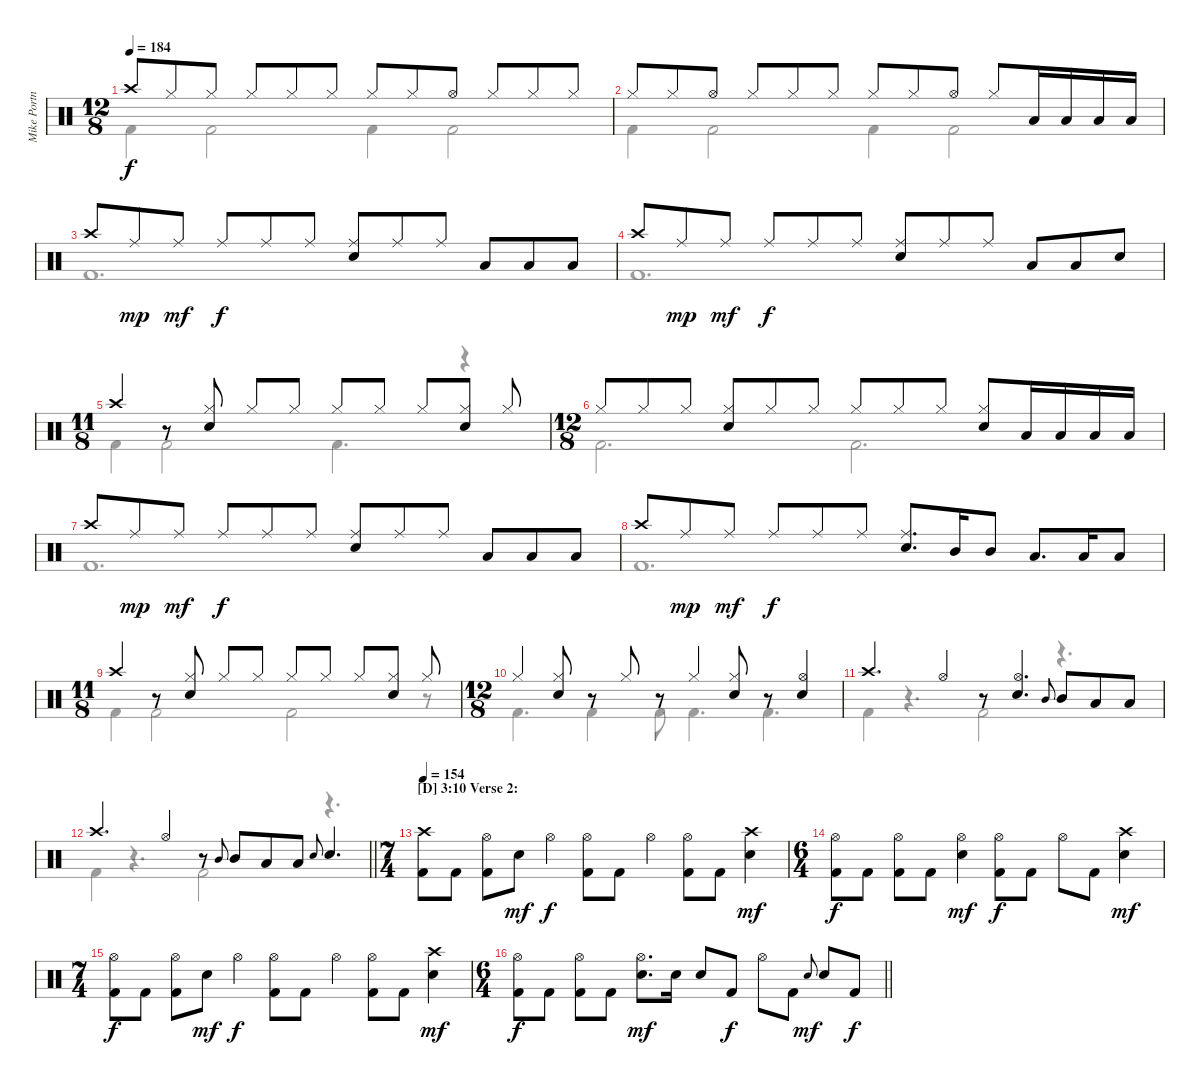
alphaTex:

\track ("Mike Portnoy - Drum" "Mike Portn") {instrument percussion}
\staff {score}
\articulation defaults
\voice
\ts (12 8)
\tempo 184
\clef neutral
\ks c "Crash high (hit)".8{dy f} "Hi-Hat (closed)".8 "Hi-Hat (closed)".8 "Hi-Hat (closed)".8 "Hi-Hat (closed)".8 "Hi-Hat (closed)".8 "Hi-Hat (closed)".8 "Hi-Hat (closed)".8 "Hi-Hat (open)".8 "Hi-Hat (closed)".8 "Hi-Hat (closed)".8 "Hi-Hat (closed)".8
|
"Hi-Hat (closed)".8 "Hi-Hat (closed)".8 "Hi-Hat (open)".8 "Hi-Hat (closed)".8 "Hi-Hat (closed)".8 "Hi-Hat (closed)".8 "Hi-Hat (closed)".8 "Hi-Hat (closed)".8 "Hi-Hat (open)".8 "Hi-Hat (closed)".8 "Low Tom (hit)".16 "Low Tom (hit)".16 "Low Tom (hit)".16 "Low Tom (hit)".16 |
"Crash high (hit)".8 "Ride (middle)".8{dy mp} "Ride (middle)".8{dy mf} "Ride (middle)".8{dy f} "Ride (middle)".8 "Ride (middle)".8 ("Ride (middle)" "Electric Snare (hit)").8 "Ride (middle)".8 "Ride (middle)".8 "Low Tom (hit)".8 "Low Tom (hit)".8 "Low Tom (hit)".8 |
"Crash high (hit)".8 "Ride (middle)".8{dy mp} "Ride (middle)".8{dy mf} "Ride (middle)".8{dy f} "Ride (middle)".8 "Ride (middle)".8 ("Ride (middle)" "Electric Snare (hit)").8 "Ride (middle)".8 "Ride (middle)".8 "Low Tom (hit)".8 "Low Tom (hit)".8 "Electric Snare (hit)".8 |
\ts (11 8)
"Crash high (hit)".4 r.8 ("Hi-Hat (closed)" "Electric Snare (hit)").8 "Hi-Hat (closed)".8 "Hi-Hat (closed)".8 "Hi-Hat (closed)".8 "Hi-Hat (closed)".8 "Hi-Hat (closed)".8 ("Hi-Hat (closed)" "Electric Snare (hit)").8 "Hi-Hat (closed)".8 |
\ts (12 8)
"Hi-Hat (closed)".8 "Hi-Hat (closed)".8 "Hi-Hat (closed)".8 ("Hi-Hat (closed)" "Electric Snare (hit)").8 "Hi-Hat (closed)".8 "Hi-Hat (closed)".8 "Hi-Hat (closed)".8 "Hi-Hat (closed)".8 "Hi-Hat (closed)".8 ("Hi-Hat (closed)" "Electric Snare (hit)").8 "Low Tom (hit)".16 "Low Tom (hit)".16 "Low Tom (hit)".16 "Low Tom (hit)".16 |
"Crash high (hit)".8 "Ride (middle)".8{dy mp} "Ride (middle)".8{dy mf} "Ride (middle)".8{dy f} "Ride (middle)".8 "Ride (middle)".8 ("Ride (middle)" "Electric Snare (hit)").8 "Ride (middle)".8 "Ride (middle)".8 "Low Tom (hit)".8 "Low Tom (hit)".8 "Low Tom (hit)".8 |
"Crash high (hit)".8 "Ride (middle)".8{dy mp} "Ride (middle)".8{dy mf} "Ride (middle)".8{dy f} "Ride (middle)".8 "Ride (middle)".8 ("Ride (middle)" "Electric Snare (hit)").8{d} "Mid Tom (hit)".16 "Mid Tom (hit)".8 "Low Tom (hit)".8{d} "Low Tom (hit)".16 "Low Tom (hit)".8 |
\ts (11 8)
"Crash high (hit)".4 r.8 ("Hi-Hat (closed)" "Electric Snare (hit)").8 "Hi-Hat (closed)".8 "Hi-Hat (closed)".8 "Hi-Hat (closed)".8 "Hi-Hat (closed)".8 "Hi-Hat (closed)".8 ("Hi-Hat (closed)" "Electric Snare (hit)").8 "Hi-Hat (closed)".8 |
\ts (12 8)
"Hi-Hat (closed)".4 ("Hi-Hat (closed)" "Electric Snare (hit)").8 r.8 "Hi-Hat (closed)".8 r.8 "Hi-Hat (closed)".4 ("Hi-Hat (closed)" "Electric Snare (hit)").8 r.8 ("Hi-Hat (open)" "Electric Snare (hit)").4 |
"Crash high (hit)".4{d} "Hi-Hat (open)".4 r.8 ("Hi-Hat (open)" "Electric Snare (hit)").4{d} "Mid Tom (hit)".8{gr onbeat} "Mid Tom (hit)".8 "Low Tom (hit)".8 "Low Tom (hit)".8 |
\barLineRight lightlight "Crash high (hit)".4{d} "Hi-Hat (open)".4
r.8 "Mid Tom (hit)".8{gr onbeat} "Mid Tom (hit)".8 "Low Tom (hit)".8 "Low Tom (hit)".8 "Electric Snare (hit)".8{gr onbeat} "Electric Snare (hit)".4{d} |
\ts (7 4)
\section ("" "[D] 3:10 Verse 2:")
\tempo 154
("Crash high (hit)" "Kick (hit) 2").8 "Kick (hit) 2".8 ("Hi-Hat (open)" "Kick (hit) 2").8 "Electric Snare (hit)".8{dy mf} "Hi-Hat (open)".4{dy f} ("Hi-Hat (open)" "Kick (hit) 2").8 "Kick (hit) 2".8 "Hi-Hat (open)".4 ("Hi-Hat (open)" "Kick (hit) 2").8 "Kick (hit) 2".8 ("Crash high (hit)" "Electric Snare (hit)").4{dy mf} |
\ts (6 4)
("Hi-Hat (open)" "Kick (hit) 2").8{dy f} "Kick (hit) 2".8 ("Hi-Hat (open)" "Kick (hit) 2").8 "Kick (hit) 2".8 ("Hi-Hat (open)" "Electric Snare (hit)").4{dy mf} ("Hi-Hat (open)" "Kick (hit) 2").8{dy f} "Kick (hit) 2".8 "Hi-Hat (open)".8 "Kick (hit) 2".8 ("Crash high (hit)" "Electric Snare (hit)").4{dy mf} |
\ts (7 4)
("Hi-Hat (open)" "Kick (hit) 2").8{dy f} "Kick (hit) 2".8 ("Hi-Hat (open)" "Kick (hit) 2").8 "Electric Snare (hit)".8{dy mf} "Hi-Hat (open)".4{dy f} ("Hi-Hat (open)" "Kick (hit) 2").8 "Kick (hit) 2".8 "Hi-Hat (open)".4 ("Hi-Hat (open)" "Kick (hit) 2").8 "Kick (hit) 2".8 ("Crash high (hit)" "Electric Snare (hit)").4{dy mf} |
\ts (6 4)
\barLineRight lightlight
("Hi-Hat (open)" "Kick (hit) 2").8{dy f} "Kick (hit) 2".8 ("Hi-Hat (open)" "Kick (hit) 2").8 "Kick (hit) 2".8 ("Hi-Hat (open)" "Electric Snare (hit)").8{d dy mf} "Electric Snare (hit)".16 "Electric Snare (hit)".8 "Kick (hit) 2".8{dy f} "Hi-Hat (open)".8 "Kick (hit) 2".8 "Electric Snare (hit)".8{gr onbeat dy mf} "Electric Snare (hit)".8 "Kick (hit) 2".8{dy f}
\voice
\clef neutral
\ottava regular
\simile none
\ks c "Kick (hit) 2".4{dy f} "Kick (hit) 2".2 "Kick (hit) 2".4 "Kick (hit) 2".2
|
"Kick (hit) 2".4 "Kick (hit) 2".2 "Kick (hit) 2".4 "Kick (hit) 2".2 |
"Kick (hit) 2".1{d} |
"Kick (hit) 2".1{d} |
"Kick (hit) 2".4 "Kick (hit) 2".2 "Kick (hit) 2".4{d} r.4 |
"Kick (hit) 2".2{d} "Kick (hit) 2".2{d} |
"Kick (hit) 2".1{d} |
"Kick (hit) 2".1{d} |
"Kick (hit) 2".4 "Kick (hit) 2".2 "Kick (hit) 2".2 r.8 |
"Kick (hit) 2".4{d} "Kick (hit) 2".4 "Kick (hit) 2".8 "Kick (hit) 2".4{d} "Kick (hit) 2".4{d} |
"Kick (hit) 2".4 r.4{d} "Kick (hit) 2".2 r.4{d} |
\barLineRight lightlight "Kick (hit) 2".4
r.4{d} "Kick (hit) 2".2 r.4{d} |
|
|
|
\barLineRight lightlight
